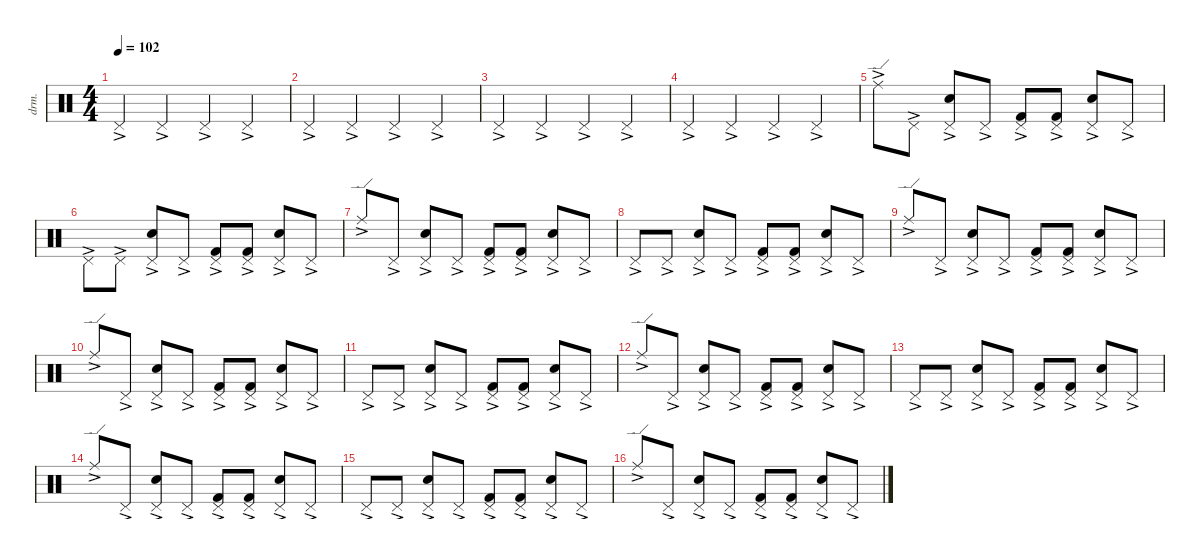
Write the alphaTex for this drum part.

\defaultSystemsLayout 4
\hideDynamics
\bracketExtendMode nobrackets
\otherSystemsTrackNameOrientation horizontal
\track ("Drumkit" "drm.") {instrument percussion}
\staff {score}
\articulation defaults
\ts (4 4)
\tempo 102
\clef neutral
\ks c "Pedal Hi-Hat (hit)"{ac}.4{dy p beam Up} "Pedal Hi-Hat (hit)"{ac}.4{beam Up} "Pedal Hi-Hat (hit)"{ac}.4{beam Up} "Pedal Hi-Hat (hit)"{ac}.4{beam Up}
|
"Pedal Hi-Hat (hit)"{ac}.4{beam Up} "Pedal Hi-Hat (hit)"{ac}.4{beam Up} "Pedal Hi-Hat (hit)"{ac}.4{beam Up} "Pedal Hi-Hat (hit)"{ac}.4{beam Up} |
"Pedal Hi-Hat (hit)"{ac}.4{beam Up} "Pedal Hi-Hat (hit)"{ac}.4{beam Up} "Pedal Hi-Hat (hit)"{ac}.4{beam Up} "Pedal Hi-Hat (hit)"{ac}.4{beam Up} |
"Pedal Hi-Hat (hit)"{ac}.4{beam Up} "Pedal Hi-Hat (hit)"{ac}.4{beam Up} "Pedal Hi-Hat (hit)"{ac}.4{beam Up} "Pedal Hi-Hat (hit)"{ac}.4{beam Up} |
"Ride (edge)"{ac}.8{beam Down} "Pedal Hi-Hat (hit)"{ac}.8{beam Down} ("Snare (hit) 2" "Pedal Hi-Hat (hit)"{ac}).8{beam Up} "Pedal Hi-Hat (hit)"{ac}.8{beam Up} ("Pedal Hi-Hat (hit)"{ac} "Kick (hit) 2").8{beam Up} ("Pedal Hi-Hat (hit)"{ac} "Kick (hit) 2").8{beam Up} ("Snare (hit) 2" "Pedal Hi-Hat (hit)"{ac}).8{beam Up} "Pedal Hi-Hat (hit)"{ac}.8{beam Up} |
"Pedal Hi-Hat (hit)"{ac}.8{beam Down} "Pedal Hi-Hat (hit)"{ac}.8{beam Down} ("Snare (hit) 2" "Pedal Hi-Hat (hit)"{ac}).8{beam Up} "Pedal Hi-Hat (hit)"{ac}.8{beam Up} ("Pedal Hi-Hat (hit)"{ac} "Kick (hit) 2").8{beam Up} ("Pedal Hi-Hat (hit)"{ac} "Kick (hit) 2").8{beam Up} ("Snare (hit) 2" "Pedal Hi-Hat (hit)"{ac}).8{beam Up} "Pedal Hi-Hat (hit)"{ac}.8{beam Up} |
"Ride (edge)"{ac}.8{beam Up} "Pedal Hi-Hat (hit)"{ac}.8{beam Up} ("Snare (hit) 2" "Pedal Hi-Hat (hit)"{ac}).8{beam Up} "Pedal Hi-Hat (hit)"{ac}.8{beam Up} ("Pedal Hi-Hat (hit)"{ac} "Kick (hit) 2").8{beam Up} ("Pedal Hi-Hat (hit)"{ac} "Kick (hit) 2").8{beam Up} ("Snare (hit) 2" "Pedal Hi-Hat (hit)"{ac}).8{beam Up} "Pedal Hi-Hat (hit)"{ac}.8{beam Up} |
"Pedal Hi-Hat (hit)"{ac}.8{beam Up} "Pedal Hi-Hat (hit)"{ac}.8{beam Up} ("Snare (hit) 2" "Pedal Hi-Hat (hit)"{ac}).8{beam Up} "Pedal Hi-Hat (hit)"{ac}.8{beam Up} ("Pedal Hi-Hat (hit)"{ac} "Kick (hit) 2").8{beam Up} ("Pedal Hi-Hat (hit)"{ac} "Kick (hit) 2").8{beam Up} ("Snare (hit) 2" "Pedal Hi-Hat (hit)"{ac}).8{beam Up} "Pedal Hi-Hat (hit)"{ac}.8{beam Up} |
"Ride (edge)"{ac}.8{beam Up} "Pedal Hi-Hat (hit)"{ac}.8{beam Up} ("Snare (hit) 2" "Pedal Hi-Hat (hit)"{ac}).8{beam Up} "Pedal Hi-Hat (hit)"{ac}.8{beam Up} ("Pedal Hi-Hat (hit)"{ac} "Kick (hit) 2").8{beam Up} ("Pedal Hi-Hat (hit)"{ac} "Kick (hit) 2").8{beam Up} ("Snare (hit) 2" "Pedal Hi-Hat (hit)"{ac}).8{beam Up} "Pedal Hi-Hat (hit)"{ac}.8{beam Up} |
"Ride (edge)"{ac}.8{beam Up} "Pedal Hi-Hat (hit)"{ac}.8{beam Up} ("Snare (hit) 2" "Pedal Hi-Hat (hit)"{ac}).8{beam Up} "Pedal Hi-Hat (hit)"{ac}.8{beam Up} ("Pedal Hi-Hat (hit)"{ac} "Kick (hit) 2").8{beam Up} ("Pedal Hi-Hat (hit)"{ac} "Kick (hit) 2").8{beam Up} ("Snare (hit) 2" "Pedal Hi-Hat (hit)"{ac}).8{beam Up} "Pedal Hi-Hat (hit)"{ac}.8{beam Up} |
"Pedal Hi-Hat (hit)"{ac}.8{beam Up} "Pedal Hi-Hat (hit)"{ac}.8{beam Up} ("Snare (hit) 2" "Pedal Hi-Hat (hit)"{ac}).8{beam Up} "Pedal Hi-Hat (hit)"{ac}.8{beam Up} ("Pedal Hi-Hat (hit)"{ac} "Kick (hit) 2").8{beam Up} ("Pedal Hi-Hat (hit)"{ac} "Kick (hit) 2").8{beam Up} ("Snare (hit) 2" "Pedal Hi-Hat (hit)"{ac}).8{beam Up} "Pedal Hi-Hat (hit)"{ac}.8{beam Up} |
"Ride (edge)"{ac}.8{beam Up} "Pedal Hi-Hat (hit)"{ac}.8{beam Up} ("Snare (hit) 2" "Pedal Hi-Hat (hit)"{ac}).8{beam Up} "Pedal Hi-Hat (hit)"{ac}.8{beam Up} ("Pedal Hi-Hat (hit)"{ac} "Kick (hit) 2").8{beam Up} ("Pedal Hi-Hat (hit)"{ac} "Kick (hit) 2").8{beam Up} ("Snare (hit) 2" "Pedal Hi-Hat (hit)"{ac}).8{beam Up} "Pedal Hi-Hat (hit)"{ac}.8{beam Up} |
"Pedal Hi-Hat (hit)"{ac}.8{beam Up} "Pedal Hi-Hat (hit)"{ac}.8{beam Up} ("Snare (hit) 2" "Pedal Hi-Hat (hit)"{ac}).8{beam Up} "Pedal Hi-Hat (hit)"{ac}.8{beam Up} ("Pedal Hi-Hat (hit)"{ac} "Kick (hit) 2").8{beam Up} ("Pedal Hi-Hat (hit)"{ac} "Kick (hit) 2").8{beam Up} ("Snare (hit) 2" "Pedal Hi-Hat (hit)"{ac}).8{beam Up} "Pedal Hi-Hat (hit)"{ac}.8{beam Up} |
"Ride (edge)"{ac}.8{beam Up} "Pedal Hi-Hat (hit)"{ac}.8{beam Up} ("Snare (hit) 2" "Pedal Hi-Hat (hit)"{ac}).8{beam Up} "Pedal Hi-Hat (hit)"{ac}.8{beam Up} ("Pedal Hi-Hat (hit)"{ac} "Kick (hit) 2").8{beam Up} ("Pedal Hi-Hat (hit)"{ac} "Kick (hit) 2").8{beam Up} ("Snare (hit) 2" "Pedal Hi-Hat (hit)"{ac}).8{beam Up} "Pedal Hi-Hat (hit)"{ac}.8{beam Up} |
"Pedal Hi-Hat (hit)"{ac}.8{beam Up} "Pedal Hi-Hat (hit)"{ac}.8{beam Up} ("Snare (hit) 2" "Pedal Hi-Hat (hit)"{ac}).8{beam Up} "Pedal Hi-Hat (hit)"{ac}.8{beam Up} ("Pedal Hi-Hat (hit)"{ac} "Kick (hit) 2").8{beam Up} ("Pedal Hi-Hat (hit)"{ac} "Kick (hit) 2").8{beam Up} ("Snare (hit) 2" "Pedal Hi-Hat (hit)"{ac}).8{beam Up} "Pedal Hi-Hat (hit)"{ac}.8{beam Up} |
"Ride (edge)"{ac}.8{beam Up} "Pedal Hi-Hat (hit)"{ac}.8{beam Up} ("Snare (hit) 2" "Pedal Hi-Hat (hit)"{ac}).8{beam Up} "Pedal Hi-Hat (hit)"{ac}.8{beam Up} ("Pedal Hi-Hat (hit)"{ac} "Kick (hit) 2").8{beam Up} ("Pedal Hi-Hat (hit)"{ac} "Kick (hit) 2").8{beam Up} ("Snare (hit) 2" "Pedal Hi-Hat (hit)"{ac}).8{beam Up} "Pedal Hi-Hat (hit)"{ac}.8{beam Up}
